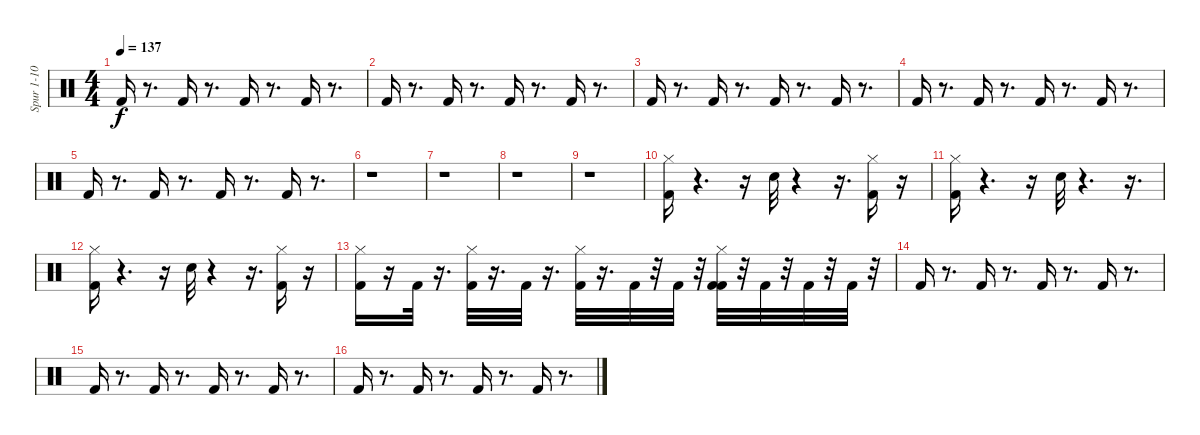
\track ("Spur 1-10" "Spur 1-10") {instrument percussion}
\staff {score}
\articulation defaults
\ts (4 4)
\tempo 137
\clef neutral
\ks c "Kick (hit) 2".16{dy f}
r.8{d} "Kick (hit) 2".16 r.8{d} "Kick (hit) 2".16 r.8{d} "Kick (hit) 2".16 r.8{d} |
"Kick (hit) 2".16 r.8{d} "Kick (hit) 2".16 r.8{d} "Kick (hit) 2".16 r.8{d} "Kick (hit) 2".16 r.8{d} |
"Kick (hit) 2".16 r.8{d} "Kick (hit) 2".16 r.8{d} "Kick (hit) 2".16 r.8{d} "Kick (hit) 2".16 r.8{d} |
"Kick (hit) 2".16 r.8{d} "Kick (hit) 2".16 r.8{d} "Kick (hit) 2".16 r.8{d} "Kick (hit) 2".16 r.8{d} |
"Kick (hit) 2".16 r.8{d} "Kick (hit) 2".16 r.8{d} "Kick (hit) 2".16 r.8{d} "Kick (hit) 2".16 r.8{d} |
r.1 |
r.1 |
r.1 |
r.1 |
("Hi-Hat (closed)" "Kick (hit) 2").16 r.4{d} r.16 "Hand Clap (hit)".32 r.4 r.16{d} ("Kick (hit) 2" "Hi-Hat (closed)").16 r.16 |
("Hi-Hat (closed)" "Kick (hit) 2").16 r.4{d} r.16 "Hand Clap (hit)".32 r.4{d} r.16{d} |
("Hi-Hat (closed)" "Kick (hit) 2").16 r.4{d} r.16 "Hand Clap (hit)".32 r.4 r.16{d} ("Hi-Hat (closed)" "Kick (hit) 2").16 r.16 |
("Hi-Hat (closed)" "Kick (hit) 2").16 r.16 "Kick (hit) 2".32 r.16{d} ("Hi-Hat (closed)" "Kick (hit) 2").32 r.16{d} "Kick (hit) 2".32 r.16{d} ("Hi-Hat (closed)" "Kick (hit) 2").32 r.16{d} "Kick (hit) 2".32 r.32 "Kick (hit) 2".32 r.32 ("Hi-Hat (closed)" "Kick (hit) 2" "Kick (hit) 2").32 r.32 "Kick (hit) 2".32 r.32 "Kick (hit) 2".32 r.32 "Kick (hit) 2".32 r.32 |
"Kick (hit) 2".16 r.8{d} "Kick (hit) 2".16 r.8{d} "Kick (hit) 2".16 r.8{d} "Kick (hit) 2".16 r.8{d} |
"Kick (hit) 2".16 r.8{d} "Kick (hit) 2".16 r.8{d} "Kick (hit) 2".16 r.8{d} "Kick (hit) 2".16 r.8{d} |
"Kick (hit) 2".16 r.8{d} "Kick (hit) 2".16 r.8{d} "Kick (hit) 2".16 r.8{d} "Kick (hit) 2".16 r.8{d}
